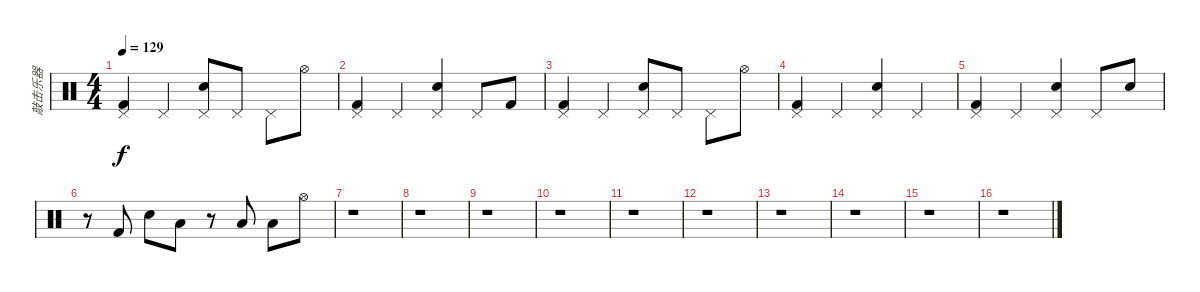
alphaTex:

\track ("敲击乐器" "敲击乐器") {instrument percussion}
\staff {score}
\articulation defaults
\ts (4 4)
\tempo 129
\clef neutral
\ks c
("Pedal Hi-Hat (hit)" "Kick (hit) 2").4{dy f} "Pedal Hi-Hat (hit)".4 ("Pedal Hi-Hat (hit)" "Snare (hit) 2").8 "Pedal Hi-Hat (hit)".8 "Pedal Hi-Hat (hit)".8 "Hi-Hat (open)".8 |
("Pedal Hi-Hat (hit)" "Kick (hit) 2").4 "Pedal Hi-Hat (hit)".4 ("Pedal Hi-Hat (hit)" "Snare (hit) 2").4 "Pedal Hi-Hat (hit)".8 "Kick (hit) 2".8 |
("Pedal Hi-Hat (hit)" "Kick (hit) 2").4 "Pedal Hi-Hat (hit)".4 ("Pedal Hi-Hat (hit)" "Snare (hit) 2").8 "Pedal Hi-Hat (hit)".8 "Pedal Hi-Hat (hit)".8 "Hi-Hat (open)".8 |
("Pedal Hi-Hat (hit)" "Kick (hit) 2").4 "Pedal Hi-Hat (hit)".4 ("Pedal Hi-Hat (hit)" "Snare (hit) 2").4 "Pedal Hi-Hat (hit)".4 |
("Pedal Hi-Hat (hit)" "Kick (hit) 2").4 "Pedal Hi-Hat (hit)".4 ("Pedal Hi-Hat (hit)" "Snare (hit) 2").4 "Pedal Hi-Hat (hit)".8 "Snare (hit) 2".8 |
r.8 "Kick (hit) 2".8 "Snare (hit) 2".8 "Low Tom (hit)".8 r.8 "Low Tom (hit)".8 "Low Tom (hit)".8 "Hi-Hat (open)".8 |
r.1 |
r.1 |
r.1 |
r.1 |
r.1 |
r.1 |
r.1 |
r.1 |
r.1 |
r.1
